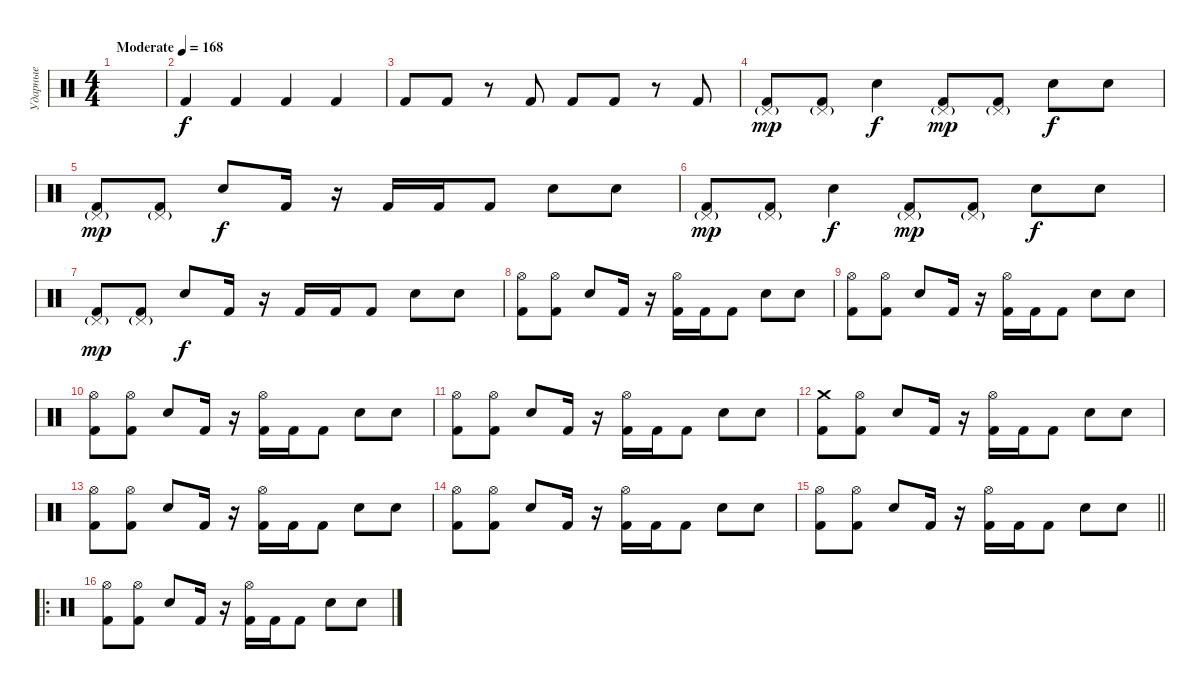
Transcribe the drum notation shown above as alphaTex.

\track ("Ударные" "Ударные") {instrument percussion}
\staff {score}
\articulation defaults
\ts (4 4)
\tempo (168 "Moderate")
\clef neutral
\ks c
|
"Kick (hit) 2".4 "Kick (hit) 2".4 "Kick (hit) 2".4 "Kick (hit) 2".4 |
"Kick (hit) 2".8 "Kick (hit) 2".8 r.8 "Kick (hit) 2".8 "Kick (hit) 2".8 "Kick (hit) 2".8 r.8 "Kick (hit) 2".8 |
("Pedal Hi-Hat (hit)"{g} "Kick (hit) 2").8{dy mp} ("Pedal Hi-Hat (hit)"{g} "Kick (hit) 2").8 "Electric Snare (hit)".4{dy f} ("Pedal Hi-Hat (hit)"{g} "Kick (hit) 2").8{dy mp} ("Pedal Hi-Hat (hit)"{g} "Kick (hit) 2").8 "Electric Snare (hit)".8{dy f} "Electric Snare (hit)".8 |
("Pedal Hi-Hat (hit)"{g} "Kick (hit) 2").8{dy mp} ("Pedal Hi-Hat (hit)"{g} "Kick (hit) 2").8 "Electric Snare (hit)".8{dy f} "Kick (hit) 2".16 r.16 "Kick (hit) 2".16 "Kick (hit) 2".16 "Kick (hit) 2".8 "Electric Snare (hit)".8 "Electric Snare (hit)".8 |
("Pedal Hi-Hat (hit)"{g} "Kick (hit) 2").8{dy mp} ("Pedal Hi-Hat (hit)"{g} "Kick (hit) 2").8 "Electric Snare (hit)".4{dy f} ("Pedal Hi-Hat (hit)"{g} "Kick (hit) 2").8{dy mp} ("Pedal Hi-Hat (hit)"{g} "Kick (hit) 2").8 "Electric Snare (hit)".8{dy f} "Electric Snare (hit)".8 |
("Pedal Hi-Hat (hit)"{g} "Kick (hit) 2").8{dy mp} ("Pedal Hi-Hat (hit)"{g} "Kick (hit) 2").8 "Electric Snare (hit)".8{dy f} "Kick (hit) 2".16 r.16 "Kick (hit) 2".16 "Kick (hit) 2".16 "Kick (hit) 2".8 "Electric Snare (hit)".8 "Electric Snare (hit)".8 |
("Hi-Hat (open)" "Kick (hit) 2").8 ("Hi-Hat (open)" "Kick (hit) 2").8 "Electric Snare (hit)".8 "Kick (hit) 2".16 r.16 ("Hi-Hat (open)" "Kick (hit) 2").16 "Kick (hit) 2".16 "Kick (hit) 2".8 "Electric Snare (hit)".8 "Electric Snare (hit)".8 |
("Hi-Hat (open)" "Kick (hit) 2").8 ("Hi-Hat (open)" "Kick (hit) 2").8 "Electric Snare (hit)".8 "Kick (hit) 2".16 r.16 ("Hi-Hat (open)" "Kick (hit) 2").16 "Kick (hit) 2".16 "Kick (hit) 2".8 "Electric Snare (hit)".8 "Electric Snare (hit)".8 |
("Hi-Hat (open)" "Kick (hit) 2").8 ("Hi-Hat (open)" "Kick (hit) 2").8 "Electric Snare (hit)".8 "Kick (hit) 2".16 r.16 ("Hi-Hat (open)" "Kick (hit) 2").16 "Kick (hit) 2".16 "Kick (hit) 2".8 "Electric Snare (hit)".8 "Electric Snare (hit)".8 |
("Hi-Hat (open)" "Kick (hit) 2").8 ("Hi-Hat (open)" "Kick (hit) 2").8 "Electric Snare (hit)".8 "Kick (hit) 2".16 r.16 ("Hi-Hat (open)" "Kick (hit) 2").16 "Kick (hit) 2".16 "Kick (hit) 2".8 "Electric Snare (hit)".8 "Electric Snare (hit)".8 |
("Crash medium (hit)" "Kick (hit) 2").8 ("Hi-Hat (open)" "Kick (hit) 2").8 "Electric Snare (hit)".8 "Kick (hit) 2".16 r.16 ("Hi-Hat (open)" "Kick (hit) 2").16 "Kick (hit) 2".16 "Kick (hit) 2".8 "Electric Snare (hit)".8 "Electric Snare (hit)".8 |
("Hi-Hat (open)" "Kick (hit) 2").8 ("Hi-Hat (open)" "Kick (hit) 2").8 "Electric Snare (hit)".8 "Kick (hit) 2".16 r.16 ("Hi-Hat (open)" "Kick (hit) 2").16 "Kick (hit) 2".16 "Kick (hit) 2".8 "Electric Snare (hit)".8 "Electric Snare (hit)".8 |
("Hi-Hat (open)" "Kick (hit) 2").8 ("Hi-Hat (open)" "Kick (hit) 2").8 "Electric Snare (hit)".8 "Kick (hit) 2".16 r.16 ("Hi-Hat (open)" "Kick (hit) 2").16 "Kick (hit) 2".16 "Kick (hit) 2".8 "Electric Snare (hit)".8 "Electric Snare (hit)".8 |
\barLineRight lightlight
("Hi-Hat (open)" "Kick (hit) 2").8 ("Hi-Hat (open)" "Kick (hit) 2").8 "Electric Snare (hit)".8 "Kick (hit) 2".16 r.16 ("Hi-Hat (open)" "Kick (hit) 2").16 "Kick (hit) 2".16 "Kick (hit) 2".8 "Electric Snare (hit)".8 "Electric Snare (hit)".8 |
\ro
("Hi-Hat (open)" "Kick (hit) 2").8 ("Hi-Hat (open)" "Kick (hit) 2").8 "Electric Snare (hit)".8 "Kick (hit) 2".16 r.16 ("Hi-Hat (open)" "Kick (hit) 2").16 "Kick (hit) 2".16 "Kick (hit) 2".8 "Electric Snare (hit)".8 "Electric Snare (hit)".8
